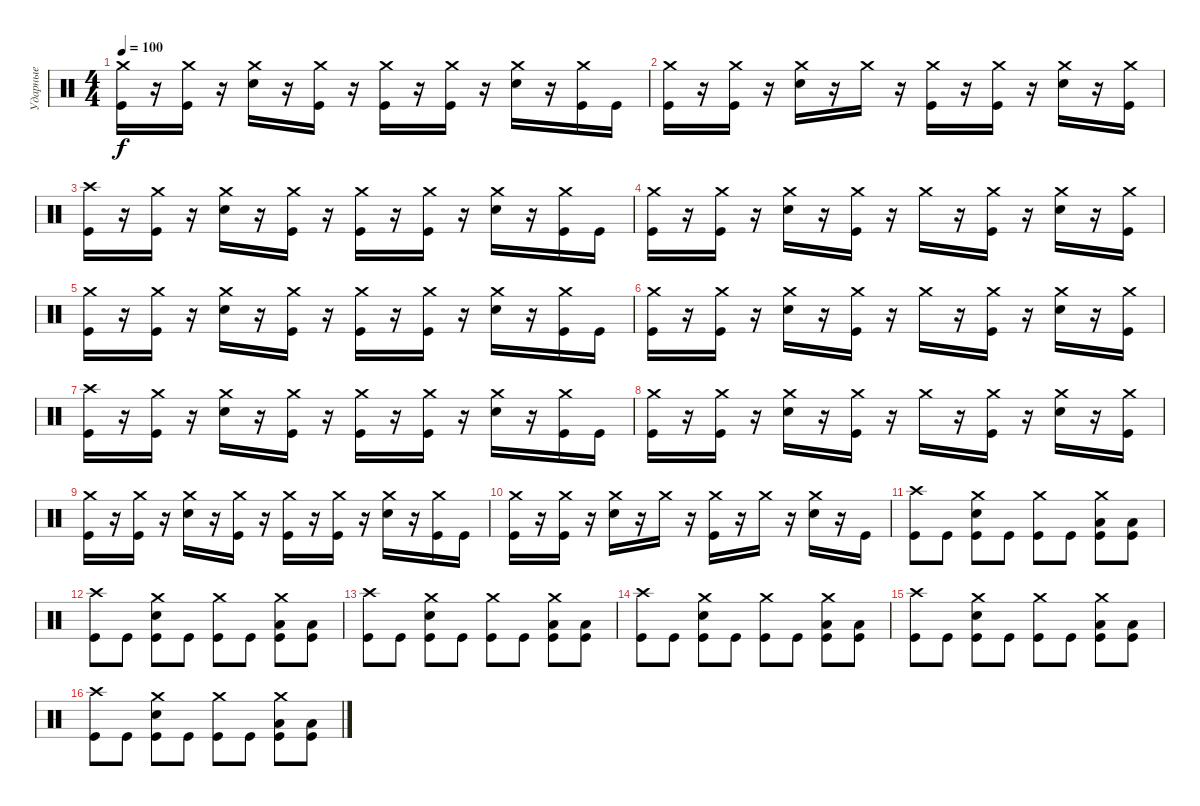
\track ("Ударные" "Ударные") {instrument percussion}
\staff {score}
\articulation defaults
\ts (4 4)
\tempo 100
\clef neutral
\ks c
("Crash medium (hit)" "Kick (hit)").16{dy f} r.16 ("Crash medium (hit)" "Kick (hit)").16 r.16 ("Crash medium (hit)" "Electric Snare (hit)").16 r.16 ("Crash medium (hit)" "Kick (hit)").16 r.16 ("Crash medium (hit)" "Kick (hit)").16 r.16 ("Crash medium (hit)" "Kick (hit)").16 r.16 ("Crash medium (hit)" "Electric Snare (hit)").16 r.16 ("Crash medium (hit)" "Kick (hit)").16 "Kick (hit)".16 |
("Crash medium (hit)" "Kick (hit)").16 r.16 ("Crash medium (hit)" "Kick (hit)").16 r.16 ("Crash medium (hit)" "Electric Snare (hit)").16 r.16 "Crash medium (hit)".16 r.16 ("Crash medium (hit)" "Kick (hit)").16 r.16 ("Crash medium (hit)" "Kick (hit)").16 r.16 ("Crash medium (hit)" "Electric Snare (hit)").16 r.16 ("Crash medium (hit)" "Kick (hit)").16 |
("Crash high (hit)" "Kick (hit)").16 r.16 ("Crash medium (hit)" "Kick (hit)").16 r.16 ("Crash medium (hit)" "Electric Snare (hit)").16 r.16 ("Crash medium (hit)" "Kick (hit)").16 r.16 ("Crash medium (hit)" "Kick (hit)").16 r.16 ("Crash medium (hit)" "Kick (hit)").16 r.16 ("Crash medium (hit)" "Electric Snare (hit)").16 r.16 ("Crash medium (hit)" "Kick (hit)").16 "Kick (hit)".16 |
("Crash medium (hit)" "Kick (hit)").16 r.16 ("Crash medium (hit)" "Kick (hit)").16 r.16 ("Crash medium (hit)" "Electric Snare (hit)").16 r.16 ("Crash medium (hit)" "Kick (hit)").16 r.16 "Crash medium (hit)".16 r.16 ("Crash medium (hit)" "Kick (hit)").16 r.16 ("Crash medium (hit)" "Electric Snare (hit)").16 r.16 ("Crash medium (hit)" "Kick (hit)").16 |
("Crash medium (hit)" "Kick (hit)").16 r.16 ("Crash medium (hit)" "Kick (hit)").16 r.16 ("Crash medium (hit)" "Electric Snare (hit)").16 r.16 ("Crash medium (hit)" "Kick (hit)").16 r.16 ("Crash medium (hit)" "Kick (hit)").16 r.16 ("Crash medium (hit)" "Kick (hit)").16 r.16 ("Crash medium (hit)" "Electric Snare (hit)").16 r.16 ("Crash medium (hit)" "Kick (hit)").16 "Kick (hit)".16 |
("Crash medium (hit)" "Kick (hit)").16 r.16 ("Crash medium (hit)" "Kick (hit)").16 r.16 ("Crash medium (hit)" "Electric Snare (hit)").16 r.16 ("Crash medium (hit)" "Kick (hit)").16 r.16 "Crash medium (hit)".16 r.16 ("Crash medium (hit)" "Kick (hit)").16 r.16 ("Crash medium (hit)" "Electric Snare (hit)").16 r.16 ("Crash medium (hit)" "Kick (hit)").16 |
("Crash high (hit)" "Kick (hit)").16 r.16 ("Crash medium (hit)" "Kick (hit)").16 r.16 ("Crash medium (hit)" "Electric Snare (hit)").16 r.16 ("Crash medium (hit)" "Kick (hit)").16 r.16 ("Crash medium (hit)" "Kick (hit)").16 r.16 ("Crash medium (hit)" "Kick (hit)").16 r.16 ("Crash medium (hit)" "Electric Snare (hit)").16 r.16 ("Crash medium (hit)" "Kick (hit)").16 "Kick (hit)".16 |
("Crash medium (hit)" "Kick (hit)").16 r.16 ("Crash medium (hit)" "Kick (hit)").16 r.16 ("Crash medium (hit)" "Electric Snare (hit)").16 r.16 ("Crash medium (hit)" "Kick (hit)").16 r.16 "Crash medium (hit)".16 r.16 ("Crash medium (hit)" "Kick (hit)").16 r.16 ("Crash medium (hit)" "Electric Snare (hit)").16 r.16 ("Crash medium (hit)" "Kick (hit)").16 |
("Crash medium (hit)" "Kick (hit)").16 r.16 ("Crash medium (hit)" "Kick (hit)").16 r.16 ("Crash medium (hit)" "Electric Snare (hit)").16 r.16 ("Crash medium (hit)" "Kick (hit)").16 r.16 ("Crash medium (hit)" "Kick (hit)").16 r.16 ("Crash medium (hit)" "Kick (hit)").16 r.16 ("Crash medium (hit)" "Electric Snare (hit)").16 r.16 ("Crash medium (hit)" "Kick (hit)").16 "Kick (hit)".16 |
("Crash medium (hit)" "Kick (hit)").16 r.16 ("Crash medium (hit)" "Kick (hit)").16 r.16 ("Crash medium (hit)" "Electric Snare (hit)").16 r.16 "Crash medium (hit)".16 r.16 ("Crash medium (hit)" "Kick (hit)").16 r.16 "Crash medium (hit)".16 r.16 ("Crash medium (hit)" "Electric Snare (hit)").16 r.16 "Kick (hit)".16 |
("Crash high (hit)" "Kick (hit)").8 "Kick (hit)".8 ("Crash medium (hit)" "Electric Snare (hit)" "Kick (hit)").8 "Kick (hit)".8 ("Crash medium (hit)" "Kick (hit)").8 "Kick (hit)".8 ("Crash medium (hit)" "Low Floor Tom (hit)" "Kick (hit)").8 ("Low Floor Tom (hit)" "Kick (hit)").8 |
("Crash high (hit)" "Kick (hit)").8 "Kick (hit)".8 ("Crash medium (hit)" "Electric Snare (hit)" "Kick (hit)").8 "Kick (hit)".8 ("Crash medium (hit)" "Kick (hit)").8 "Kick (hit)".8 ("Crash medium (hit)" "Low Floor Tom (hit)" "Kick (hit)").8 ("Low Floor Tom (hit)" "Kick (hit)").8 |
("Crash high (hit)" "Kick (hit)").8 "Kick (hit)".8 ("Crash medium (hit)" "Electric Snare (hit)" "Kick (hit)").8 "Kick (hit)".8 ("Crash medium (hit)" "Kick (hit)").8 "Kick (hit)".8 ("Crash medium (hit)" "Low Floor Tom (hit)" "Kick (hit)").8 ("Low Floor Tom (hit)" "Kick (hit)").8 |
("Crash high (hit)" "Kick (hit)").8 "Kick (hit)".8 ("Crash medium (hit)" "Electric Snare (hit)" "Kick (hit)").8 "Kick (hit)".8 ("Crash medium (hit)" "Kick (hit)").8 "Kick (hit)".8 ("Crash medium (hit)" "Low Floor Tom (hit)" "Kick (hit)").8 ("Low Floor Tom (hit)" "Kick (hit)").8 |
("Crash high (hit)" "Kick (hit)").8 "Kick (hit)".8 ("Crash medium (hit)" "Electric Snare (hit)" "Kick (hit)").8 "Kick (hit)".8 ("Crash medium (hit)" "Kick (hit)").8 "Kick (hit)".8 ("Crash medium (hit)" "Low Floor Tom (hit)" "Kick (hit)").8 ("Low Floor Tom (hit)" "Kick (hit)").8 |
("Crash high (hit)" "Kick (hit)").8 "Kick (hit)".8 ("Crash medium (hit)" "Electric Snare (hit)" "Kick (hit)").8 "Kick (hit)".8 ("Crash medium (hit)" "Kick (hit)").8 "Kick (hit)".8 ("Crash medium (hit)" "Low Floor Tom (hit)" "Kick (hit)").8 ("Low Floor Tom (hit)" "Kick (hit)").8
